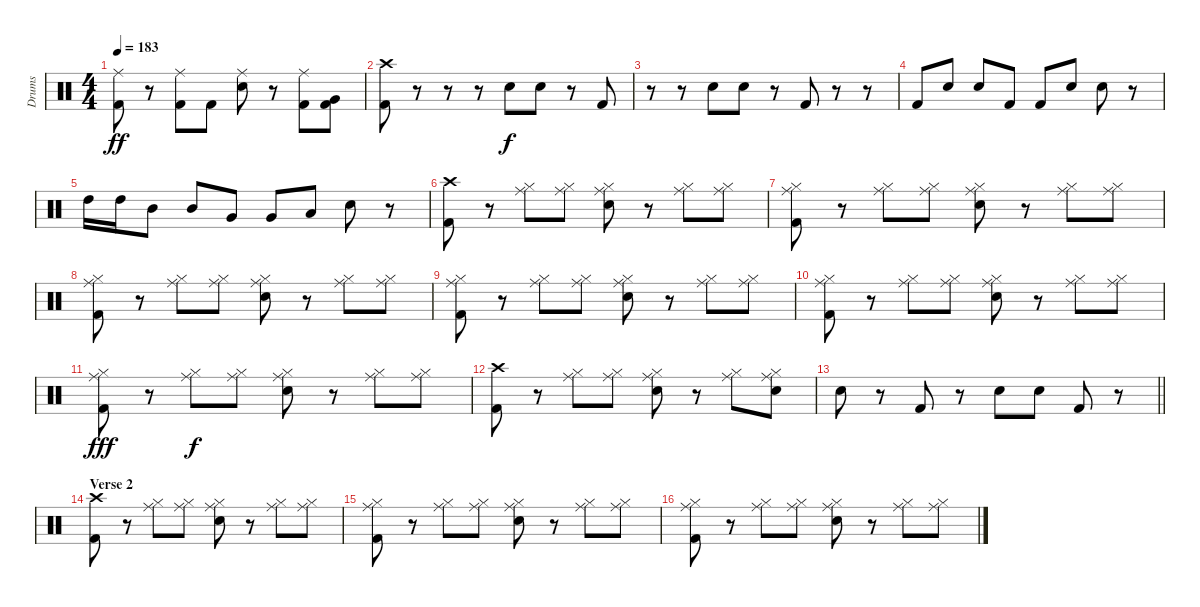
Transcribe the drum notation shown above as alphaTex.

\track ("Drums" "Drums") {instrument percussion}
\staff {score}
\articulation defaults
\ts (4 4)
\tempo 183
\clef neutral
\ks c
("Ride (middle)" "Kick (hit) 2").8{dy ff} r.8 ("Ride (middle)" "Kick (hit) 2").8 "Kick (hit) 2".8 ("Ride (middle)" "Snare (hit) 2").8 r.8 ("Ride (middle)" "Kick (hit) 2").8 ("Very Low Tom (hit)" "Kick (hit) 2").8 |
("Crash high (hit)" "Kick (hit) 2").8 r.8 r.8 r.8 "Snare (hit) 2".8{dy f} "Snare (hit) 2".8 r.8 "Kick (hit) 2".8 |
r.8 r.8 "Snare (hit) 2".8 "Snare (hit) 2".8 r.8 "Kick (hit) 2".8 r.8 r.8 |
"Kick (hit) 2".8 "Snare (hit) 2".8 "Snare (hit) 2".8 "Kick (hit) 2".8 "Kick (hit) 2".8 "Snare (hit) 2".8 "Snare (hit) 2".8 r.8 |
"High Tom (hit)".16 "High Tom (hit)".16 "Mid Tom (hit)".8 "Mid Tom (hit)".8 "Very Low Tom (hit)".8 "Very Low Tom (hit)".8 "Low Floor Tom (hit)".8 "Snare (hit) 2".8 r.8 |
("Crash high (hit)" "Kick (hit) 2").8 r.8 ("Ride (middle)" "Hi-Hat (closed)").8 ("Ride (middle)" "Hi-Hat (closed)").8 ("Ride (middle)" "Hi-Hat (closed)" "Snare (hit) 2").8 r.8 ("Ride (middle)" "Hi-Hat (closed)").8 ("Ride (middle)" "Hi-Hat (closed)").8 |
("Ride (middle)" "Hi-Hat (closed)" "Kick (hit) 2").8 r.8 ("Ride (middle)" "Hi-Hat (closed)").8 ("Ride (middle)" "Hi-Hat (closed)").8 ("Ride (middle)" "Hi-Hat (closed)" "Snare (hit) 2").8 r.8 ("Ride (middle)" "Hi-Hat (closed)").8 ("Ride (middle)" "Hi-Hat (closed)").8 |
("Ride (middle)" "Hi-Hat (closed)" "Kick (hit) 2").8 r.8 ("Ride (middle)" "Hi-Hat (closed)").8 ("Ride (middle)" "Hi-Hat (closed)").8 ("Ride (middle)" "Hi-Hat (closed)" "Snare (hit) 2").8 r.8 ("Ride (middle)" "Hi-Hat (closed)").8 ("Ride (middle)" "Hi-Hat (closed)").8 |
("Ride (middle)" "Hi-Hat (closed)" "Kick (hit) 2").8 r.8 ("Ride (middle)" "Hi-Hat (closed)").8 ("Ride (middle)" "Hi-Hat (closed)").8 ("Ride (middle)" "Hi-Hat (closed)" "Snare (hit) 2").8 r.8 ("Ride (middle)" "Hi-Hat (closed)").8 ("Ride (middle)" "Hi-Hat (closed)").8 |
("Ride (middle)" "Hi-Hat (closed)" "Kick (hit) 2").8 r.8 ("Ride (middle)" "Hi-Hat (closed)").8 ("Ride (middle)" "Hi-Hat (closed)").8 ("Ride (middle)" "Hi-Hat (closed)" "Snare (hit) 2").8 r.8 ("Ride (middle)" "Hi-Hat (closed)").8 ("Ride (middle)" "Hi-Hat (closed)").8 |
("Ride (middle)" "Hi-Hat (closed)" "Kick (hit) 2").8{dy fff} r.8 ("Ride (middle)" "Hi-Hat (closed)").8{dy f} ("Ride (middle)" "Hi-Hat (closed)").8 ("Ride (middle)" "Hi-Hat (closed)" "Snare (hit) 2").8 r.8 ("Ride (middle)" "Hi-Hat (closed)").8 ("Ride (middle)" "Hi-Hat (closed)").8 |
("Crash high (hit)" "Kick (hit) 2").8 r.8 ("Ride (middle)" "Hi-Hat (closed)").8 ("Ride (middle)" "Hi-Hat (closed)").8 ("Ride (middle)" "Hi-Hat (closed)" "Snare (hit) 2").8 r.8 ("Ride (middle)" "Hi-Hat (closed)").8 ("Ride (middle)" "Hi-Hat (closed)" "Snare (hit) 2").8 |
\barLineRight lightlight "Snare (hit) 2".8
r.8 "Kick (hit) 2".8 r.8 "Snare (hit) 2".8 "Snare (hit) 2".8 "Kick (hit) 2".8 r.8 |
\section ("" "Verse 2")
("Crash high (hit)" "Kick (hit) 2").8 r.8 ("Ride (middle)" "Hi-Hat (closed)").8 ("Ride (middle)" "Hi-Hat (closed)").8 ("Ride (middle)" "Hi-Hat (closed)" "Snare (hit) 2").8 r.8 ("Ride (middle)" "Hi-Hat (closed)").8 ("Ride (middle)" "Hi-Hat (closed)").8 |
("Ride (middle)" "Hi-Hat (closed)" "Kick (hit) 2").8 r.8 ("Ride (middle)" "Hi-Hat (closed)").8 ("Ride (middle)" "Hi-Hat (closed)").8 ("Ride (middle)" "Hi-Hat (closed)" "Snare (hit) 2").8 r.8 ("Ride (middle)" "Hi-Hat (closed)").8 ("Ride (middle)" "Hi-Hat (closed)").8 |
("Ride (middle)" "Hi-Hat (closed)" "Kick (hit) 2").8 r.8 ("Ride (middle)" "Hi-Hat (closed)").8 ("Ride (middle)" "Hi-Hat (closed)").8 ("Ride (middle)" "Hi-Hat (closed)" "Snare (hit) 2").8 r.8 ("Ride (middle)" "Hi-Hat (closed)").8 ("Ride (middle)" "Hi-Hat (closed)").8
